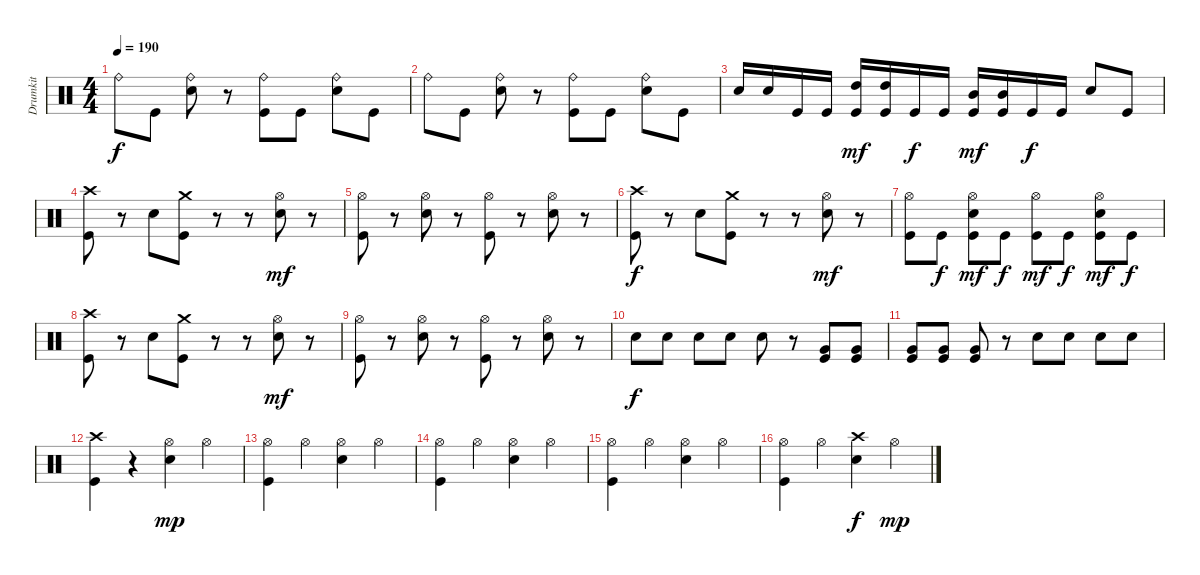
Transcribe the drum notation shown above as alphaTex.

\track ("Drumkit" "Drumkit") {instrument percussion}
\staff {score}
\articulation defaults
\ts (4 4)
\tempo 190
\clef neutral
\ks c "Ride (bell)".8{dy f} "Kick (hit)".8
("Ride (bell)" "Snare (hit) 2").8 r.8 ("Ride (bell)" "Kick (hit)").8 "Kick (hit)".8 ("Ride (bell)" "Snare (hit) 2").8 "Kick (hit)".8 |
"Ride (bell)".8 "Kick (hit)".8 ("Ride (bell)" "Snare (hit) 2").8 r.8 ("Ride (bell)" "Kick (hit)").8 "Kick (hit)".8 ("Ride (bell)" "Snare (hit) 2").8 "Kick (hit)".8 |
"Snare (hit) 2".16 "Snare (hit) 2".16 "Kick (hit)".16 "Kick (hit)".16 ("High Tom (hit)" "Kick (hit)").16{dy mf} ("High Tom (hit)" "Kick (hit)").16 "Kick (hit)".16{dy f} "Kick (hit)".16 ("Mid Tom (hit)" "Kick (hit)").16{dy mf} ("Mid Tom (hit)" "Kick (hit)").16 "Kick (hit)".16{dy f} "Kick (hit)".16 "Snare (hit) 2".8 "Kick (hit)".8 |
("Crash high (hit)" "Kick (hit)").8 r.8 "Snare (hit) 2".8 ("Crash medium (hit)" "Kick (hit)").8 r.8 r.8 ("Hi-Hat (open)" "Snare (hit) 2").8{dy mf} r.8 |
("Hi-Hat (open)" "Kick (hit)").8 r.8 ("Hi-Hat (open)" "Snare (hit) 2").8 r.8 ("Hi-Hat (open)" "Kick (hit)").8 r.8 ("Hi-Hat (open)" "Snare (hit) 2").8 r.8 |
("Crash high (hit)" "Kick (hit)").8{dy f} r.8 "Snare (hit) 2".8 ("Crash medium (hit)" "Kick (hit)").8 r.8 r.8 ("Hi-Hat (open)" "Snare (hit) 2").8{dy mf} r.8 |
("Hi-Hat (open)" "Kick (hit)").8 "Kick (hit)".8{dy f} ("Hi-Hat (open)" "Snare (hit) 2" "Kick (hit)").8{dy mf} "Kick (hit)".8{dy f} ("Hi-Hat (open)" "Kick (hit)").8{dy mf} "Kick (hit)".8{dy f} ("Hi-Hat (open)" "Snare (hit) 2" "Kick (hit)").8{dy mf} "Kick (hit)".8{dy f} |
("Crash high (hit)" "Kick (hit)").8 r.8 "Snare (hit) 2".8 ("Crash medium (hit)" "Kick (hit)").8 r.8 r.8 ("Hi-Hat (open)" "Snare (hit) 2").8{dy mf} r.8 |
("Hi-Hat (open)" "Kick (hit)").8 r.8 ("Hi-Hat (open)" "Snare (hit) 2").8 r.8 ("Hi-Hat (open)" "Kick (hit)").8 r.8 ("Hi-Hat (open)" "Snare (hit) 2").8 r.8 |
"Snare (hit) 2".8{dy f} "Snare (hit) 2".8 "Snare (hit) 2".8 "Snare (hit) 2".8 "Snare (hit) 2".8 r.8 ("Kick (hit)" "Very Low Tom (hit)").8 ("Kick (hit)" "Very Low Tom (hit)").8 |
("Kick (hit)" "Very Low Tom (hit)").8 ("Kick (hit)" "Very Low Tom (hit)").8 ("Kick (hit)" "Very Low Tom (hit)").8 r.8 "Snare (hit) 2".8 "Snare (hit) 2".8 "Snare (hit) 2".8 "Snare (hit) 2".8 |
("Crash high (hit)" "Kick (hit)").4 r.4 ("Hi-Hat (open)" "Snare (hit) 2").4{dy mp} "Hi-Hat (open)".4 |
("Hi-Hat (open)" "Kick (hit)").4 "Hi-Hat (open)".4 ("Hi-Hat (open)" "Snare (hit) 2").4 "Hi-Hat (open)".4 |
("Hi-Hat (open)" "Kick (hit)").4 "Hi-Hat (open)".4 ("Hi-Hat (open)" "Snare (hit) 2").4 "Hi-Hat (open)".4 |
("Hi-Hat (open)" "Kick (hit)").4 "Hi-Hat (open)".4 ("Hi-Hat (open)" "Snare (hit) 2").4 "Hi-Hat (open)".4 |
("Hi-Hat (open)" "Kick (hit)").4 "Hi-Hat (open)".4 ("Crash high (hit)" "Snare (hit) 2").4{dy f} "Hi-Hat (open)".4{dy mp}
